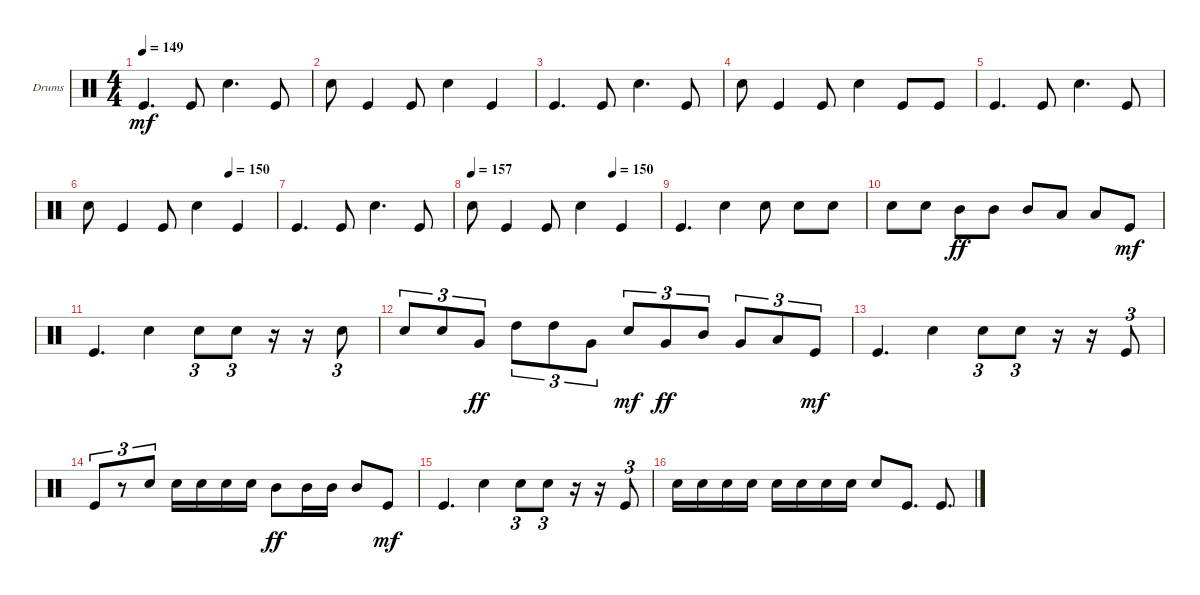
\defaultSystemsLayout 4
\bracketExtendMode groupsimilarinstruments
\firstSystemTrackNameOrientation horizontal
\otherSystemsTrackNameOrientation horizontal
\track ("Drumkit" "Drums") {instrument percussion}
\staff {score}
\articulation defaults
\ts (4 4)
\tempo 149
\clef neutral
\scale
0.333333
\ks c "Kick (hit)".4{d dy mf} "Kick (hit)".8 "Snare (hit) 2".4{d} "Kick (hit)".8
|
\scale
0.333333 "Snare (hit) 2".8 "Kick (hit)".4 "Kick (hit)".8 "Snare (hit) 2".4 "Kick (hit)".4 |
\scale
0.333333 "Kick (hit)".4{d} "Kick (hit)".8 "Snare (hit) 2".4{d} "Kick (hit)".8 |
\scale
0.333333 "Snare (hit) 2".8 "Kick (hit)".4 "Kick (hit)".8 "Snare (hit) 2".4 "Kick (hit)".8 "Kick (hit)".8 |
\scale
0.333333 "Kick (hit)".4{d} "Kick (hit)".8 "Snare (hit) 2".4{d} "Kick (hit)".8 |
\tempo (150 0.75)
\scale
0.333333 "Snare (hit) 2".8 "Kick (hit)".4 "Kick (hit)".8 "Snare (hit) 2".4 "Kick (hit)".4 |
\scale
0.333333 "Kick (hit)".4{d} "Kick (hit)".8 "Snare (hit) 2".4{d} "Kick (hit)".8 |
\tempo 157
\tempo (150 0.75)
\scale
0.333333 "Snare (hit) 2".8 "Kick (hit)".4 "Kick (hit)".8 "Snare (hit) 2".4 "Kick (hit)".4 |
\scale
0.333333 "Kick (hit)".4{d} "Snare (hit) 2".4 "Snare (hit) 2".8 "Snare (hit) 2".8 "Snare (hit) 2".8 |
\scale
0.333333 "Snare (hit) 2".8 "Snare (hit) 2".8 "Mid Tom (hit)".8{dy ff} "Mid Tom (hit)".8 "Mid Tom (hit)".8 "Low Tom (hit)".8 "Low Tom (hit)".8 "Kick (hit)".8{dy mf} |
\scale
0.333333 "Kick (hit)".4{d} "Snare (hit) 2".4 "Snare (hit) 2".8{tu (3 2)} "Snare (hit) 2".8{tu (3 2)} r.16 r.16 "Snare (hit) 2".8{tu (3 2)} |
\scale
0.333333 "Snare (hit) 2".8{tu (3 2)} "Snare (hit) 2".8{tu (3 2)} "Very Low Tom (hit)".8{tu (3 2) dy ff} "High Tom (hit)".8{tu (3 2)} "High Tom (hit)".8{tu (3 2)} "Very Low Tom (hit)".8{tu (3 2)} "Snare (hit) 2".8{tu (3 2) dy mf} "Very Low Tom (hit)".8{tu (3 2) dy ff} "Mid Tom (hit)".8{tu (3 2)} "Very Low Tom (hit)".8{tu (3 2)} "Low Tom (hit)".8{tu (3 2)} "Kick (hit)".8{tu (3 2) dy mf} |
\scale
0.333333 "Kick (hit)".4{d} "Snare (hit) 2".4 "Snare (hit) 2".8{tu (3 2)} "Snare (hit) 2".8{tu (3 2)} r.16 r.16 "Kick (hit)".8{tu (3 2)} |
\scale
0.333333 "Kick (hit)".8{tu (3 2)} r.8{tu (3 2)} "Snare (hit) 2".8{tu (3 2)} "Snare (hit) 2".16 "Snare (hit) 2".16 "Snare (hit) 2".16 "Snare (hit) 2".16 "Mid Tom (hit)".8{dy ff} "Mid Tom (hit)".16 "Mid Tom (hit)".16 "Mid Tom (hit)".8 "Kick (hit)".8{dy mf} |
\scale
0.333333 "Kick (hit)".4{d} "Snare (hit) 2".4 "Snare (hit) 2".8{tu (3 2)} "Snare (hit) 2".8{tu (3 2)} r.16 r.16 "Kick (hit)".8{tu (3 2)} |
\scale
0.333333 "Snare (hit) 2".16 "Snare (hit) 2".16 "Snare (hit) 2".16 "Snare (hit) 2".16 "Snare (hit) 2".16 "Snare (hit) 2".16 "Snare (hit) 2".16 "Snare (hit) 2".16 "Snare (hit) 2".8 "Kick (hit)".8{d} "Kick (hit)".8{d}
